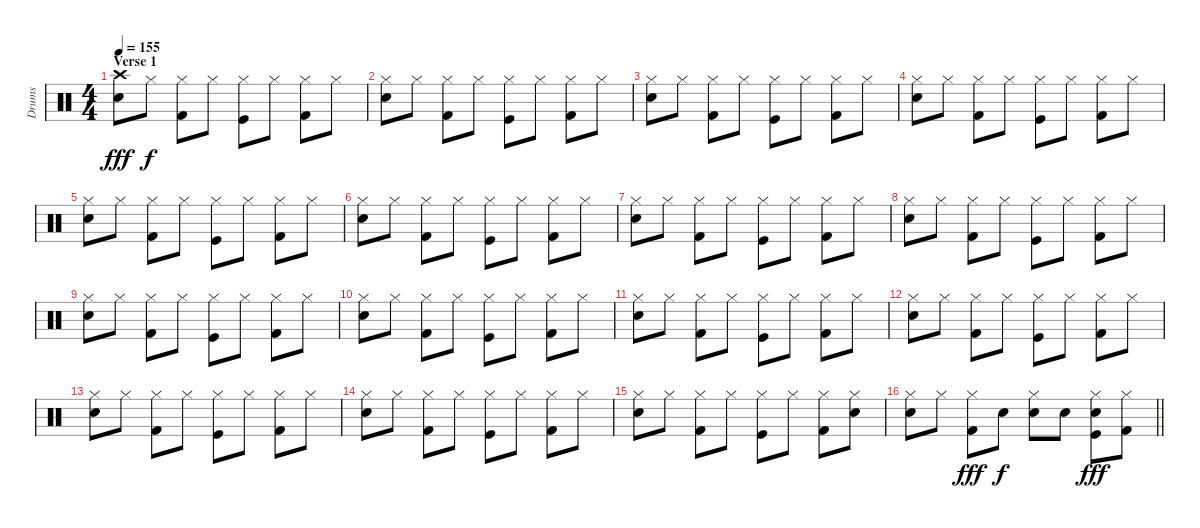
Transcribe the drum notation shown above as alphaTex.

\track ("Drums" "Drums") {instrument percussion}
\staff {score}
\articulation defaults
\ts (4 4)
\section ("" "Verse 1")
\tempo 155
\clef neutral
\ks c
("Electric Snare (hit)" "Crash high (hit)").8{dy fff} "Hi-Hat (closed)".8{dy f} ("Kick (hit) 2" "Hi-Hat (closed)").8 "Hi-Hat (closed)".8 ("Kick (hit)" "Hi-Hat (closed)").8 "Hi-Hat (closed)".8 ("Kick (hit) 2" "Hi-Hat (closed)").8 "Hi-Hat (closed)".8 |
("Electric Snare (hit)" "Hi-Hat (closed)").8 "Hi-Hat (closed)".8 ("Kick (hit) 2" "Hi-Hat (closed)").8 "Hi-Hat (closed)".8 ("Kick (hit)" "Hi-Hat (closed)").8 "Hi-Hat (closed)".8 ("Kick (hit) 2" "Hi-Hat (closed)").8 "Hi-Hat (closed)".8 |
("Electric Snare (hit)" "Hi-Hat (closed)").8 "Hi-Hat (closed)".8 ("Kick (hit) 2" "Hi-Hat (closed)").8 "Hi-Hat (closed)".8 ("Kick (hit)" "Hi-Hat (closed)").8 "Hi-Hat (closed)".8 ("Kick (hit) 2" "Hi-Hat (closed)").8 "Hi-Hat (closed)".8 |
("Electric Snare (hit)" "Hi-Hat (closed)").8 "Hi-Hat (closed)".8 ("Kick (hit) 2" "Hi-Hat (closed)").8 "Hi-Hat (closed)".8 ("Kick (hit)" "Hi-Hat (closed)").8 "Hi-Hat (closed)".8 ("Kick (hit) 2" "Hi-Hat (closed)").8 "Hi-Hat (closed)".8 |
("Electric Snare (hit)" "Hi-Hat (closed)").8 "Hi-Hat (closed)".8 ("Kick (hit) 2" "Hi-Hat (closed)").8 "Hi-Hat (closed)".8 ("Kick (hit)" "Hi-Hat (closed)").8 "Hi-Hat (closed)".8 ("Kick (hit) 2" "Hi-Hat (closed)").8 "Hi-Hat (closed)".8 |
("Electric Snare (hit)" "Hi-Hat (closed)").8 "Hi-Hat (closed)".8 ("Kick (hit) 2" "Hi-Hat (closed)").8 "Hi-Hat (closed)".8 ("Kick (hit)" "Hi-Hat (closed)").8 "Hi-Hat (closed)".8 ("Kick (hit) 2" "Hi-Hat (closed)").8 "Hi-Hat (closed)".8 |
("Electric Snare (hit)" "Hi-Hat (closed)").8 "Hi-Hat (closed)".8 ("Kick (hit) 2" "Hi-Hat (closed)").8 "Hi-Hat (closed)".8 ("Kick (hit)" "Hi-Hat (closed)").8 "Hi-Hat (closed)".8 ("Kick (hit) 2" "Hi-Hat (closed)").8 "Hi-Hat (closed)".8 |
("Electric Snare (hit)" "Hi-Hat (closed)").8 "Hi-Hat (closed)".8 ("Kick (hit) 2" "Hi-Hat (closed)").8 "Hi-Hat (closed)".8 ("Kick (hit)" "Hi-Hat (closed)").8 "Hi-Hat (closed)".8 ("Kick (hit) 2" "Hi-Hat (closed)").8 "Hi-Hat (closed)".8 |
("Electric Snare (hit)" "Hi-Hat (closed)").8 "Hi-Hat (closed)".8 ("Kick (hit) 2" "Hi-Hat (closed)").8 "Hi-Hat (closed)".8 ("Kick (hit)" "Hi-Hat (closed)").8 "Hi-Hat (closed)".8 ("Kick (hit) 2" "Hi-Hat (closed)").8 "Hi-Hat (closed)".8 |
("Electric Snare (hit)" "Hi-Hat (closed)").8 "Hi-Hat (closed)".8 ("Kick (hit) 2" "Hi-Hat (closed)").8 "Hi-Hat (closed)".8 ("Kick (hit)" "Hi-Hat (closed)").8 "Hi-Hat (closed)".8 ("Kick (hit) 2" "Hi-Hat (closed)").8 "Hi-Hat (closed)".8 |
("Electric Snare (hit)" "Hi-Hat (closed)").8 "Hi-Hat (closed)".8 ("Kick (hit) 2" "Hi-Hat (closed)").8 "Hi-Hat (closed)".8 ("Kick (hit)" "Hi-Hat (closed)").8 "Hi-Hat (closed)".8 ("Kick (hit) 2" "Hi-Hat (closed)").8 "Hi-Hat (closed)".8 |
("Electric Snare (hit)" "Hi-Hat (closed)").8 "Hi-Hat (closed)".8 ("Kick (hit) 2" "Hi-Hat (closed)").8 "Hi-Hat (closed)".8 ("Kick (hit)" "Hi-Hat (closed)").8 "Hi-Hat (closed)".8 ("Kick (hit) 2" "Hi-Hat (closed)").8 "Hi-Hat (closed)".8 |
("Electric Snare (hit)" "Hi-Hat (closed)").8 "Hi-Hat (closed)".8 ("Kick (hit) 2" "Hi-Hat (closed)").8 "Hi-Hat (closed)".8 ("Kick (hit)" "Hi-Hat (closed)").8 "Hi-Hat (closed)".8 ("Kick (hit) 2" "Hi-Hat (closed)").8 "Hi-Hat (closed)".8 |
("Electric Snare (hit)" "Hi-Hat (closed)").8 "Hi-Hat (closed)".8 ("Kick (hit) 2" "Hi-Hat (closed)").8 "Hi-Hat (closed)".8 ("Kick (hit)" "Hi-Hat (closed)").8 "Hi-Hat (closed)".8 ("Kick (hit) 2" "Hi-Hat (closed)").8 "Hi-Hat (closed)".8 |
("Electric Snare (hit)" "Hi-Hat (closed)").8 "Hi-Hat (closed)".8 ("Kick (hit) 2" "Hi-Hat (closed)").8 "Hi-Hat (closed)".8 ("Kick (hit)" "Hi-Hat (closed)").8 "Hi-Hat (closed)".8 ("Kick (hit) 2" "Hi-Hat (closed)").8 ("Electric Snare (hit)" "Hi-Hat (closed)").8 |
\barLineRight lightlight
("Electric Snare (hit)" "Hi-Hat (closed)").8 "Hi-Hat (closed)".8 ("Kick (hit) 2" "Hi-Hat (closed)").8{dy fff} "Electric Snare (hit)".8{dy f} ("Electric Snare (hit)" "Hi-Hat (closed)").8 "Electric Snare (hit)".8 ("Electric Snare (hit)" "Kick (hit)" "Hi-Hat (closed)").8{dy fff} ("Kick (hit) 2" "Hi-Hat (closed)").8
